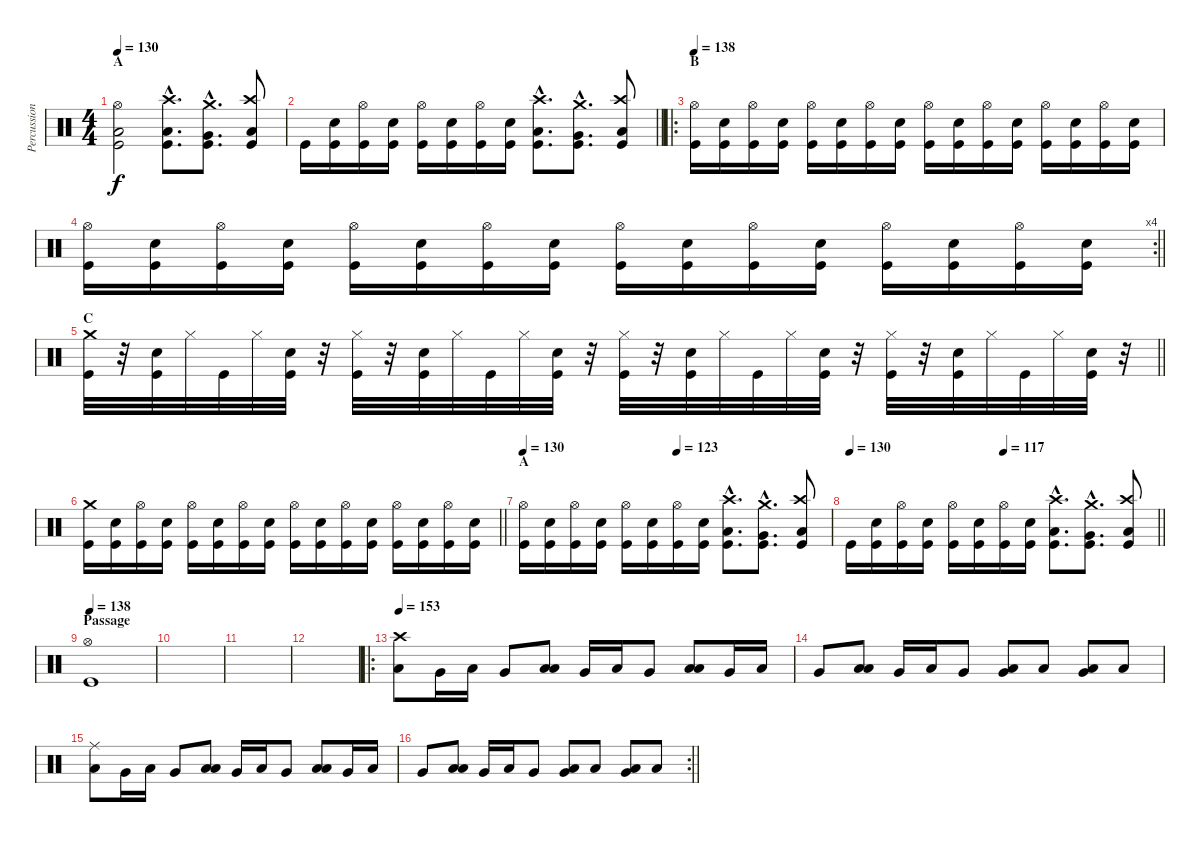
\track ("Percussion" "Percussion") {instrument percussion}
\staff {score}
\articulation defaults
\ts (4 4)
\section ("" "A")
\tempo 130
\clef neutral
\ks c
("Kick (hit)" "Low Tom (hit)" "Hi-Hat (open)").2{dy f} ("Kick (hit)"{hac} "Crash high (hit)"{hac} "Low Tom (hit)"{hac}).8{d} ("Kick (hit)"{hac} "Crash medium (hit)"{hac} "Very Low Tom (hit)"{hac}).8{d} ("Kick (hit)" "Crash high (hit)" "Low Floor Tom (hit)").8 |
\barLineRight lightlight "Kick (hit)".16
("Kick (hit)" "Snare (hit) 2").16 ("Kick (hit)" "Hi-Hat (open)").16 ("Kick (hit)" "Snare (hit) 2").16 ("Kick (hit)" "Hi-Hat (open)").16 ("Kick (hit)" "Snare (hit) 2").16 ("Kick (hit)" "Hi-Hat (open)").16 ("Kick (hit)" "Snare (hit) 2").16 ("Kick (hit)"{hac} "Crash high (hit)"{hac} "Low Tom (hit)"{hac}).8{d} ("Kick (hit)"{hac} "Crash medium (hit)"{hac} "Very Low Tom (hit)"{hac}).8{d} ("Kick (hit)" "Crash high (hit)" "Low Floor Tom (hit)").8 |
\ro
\section ("" "B")
\tempo 138
("Kick (hit)" "Hi-Hat (open)").16 ("Kick (hit)" "Snare (hit) 2").16 ("Kick (hit)" "Hi-Hat (open)").16 ("Kick (hit)" "Snare (hit) 2").16 ("Kick (hit)" "Hi-Hat (open)").16 ("Kick (hit)" "Snare (hit) 2").16 ("Kick (hit)" "Hi-Hat (open)").16 ("Kick (hit)" "Snare (hit) 2").16 ("Kick (hit)" "Hi-Hat (open)").16 ("Kick (hit)" "Snare (hit) 2").16 ("Kick (hit)" "Hi-Hat (open)").16 ("Kick (hit)" "Snare (hit) 2").16 ("Kick (hit)" "Hi-Hat (open)").16 ("Kick (hit)" "Snare (hit) 2").16 ("Kick (hit)" "Hi-Hat (open)").16 ("Kick (hit)" "Snare (hit) 2").16 |
\rc 4
\barLineRight lightlight
("Kick (hit)" "Hi-Hat (open)").16 ("Kick (hit)" "Snare (hit) 2").16 ("Kick (hit)" "Hi-Hat (open)").16 ("Kick (hit)" "Snare (hit) 2").16 ("Kick (hit)" "Hi-Hat (open)").16 ("Kick (hit)" "Snare (hit) 2").16 ("Kick (hit)" "Hi-Hat (open)").16 ("Kick (hit)" "Snare (hit) 2").16 ("Kick (hit)" "Hi-Hat (open)").16 ("Kick (hit)" "Snare (hit) 2").16 ("Kick (hit)" "Hi-Hat (open)").16 ("Kick (hit)" "Snare (hit) 2").16 ("Kick (hit)" "Hi-Hat (open)").16 ("Kick (hit)" "Snare (hit) 2").16 ("Kick (hit)" "Hi-Hat (open)").16 ("Kick (hit)" "Snare (hit) 2").16 |
\section ("" "C")
\barLineRight lightlight
("Kick (hit)" "Crash medium (hit)").32 r.32 ("Kick (hit)" "Snare (hit) 2").32 "Hi-Hat (closed)".32 "Kick (hit)".32 "Hi-Hat (closed)".32 ("Kick (hit)" "Snare (hit) 2").32 r.32 ("Kick (hit)" "Hi-Hat (closed)").32 r.32 ("Kick (hit)" "Snare (hit) 2").32 "Hi-Hat (closed)".32 "Kick (hit)".32 "Hi-Hat (closed)".32 ("Kick (hit)" "Snare (hit) 2").32 r.32 ("Kick (hit)" "Hi-Hat (closed)").32 r.32 ("Kick (hit)" "Snare (hit) 2").32 "Hi-Hat (closed)".32 "Kick (hit)".32 "Hi-Hat (closed)".32 ("Kick (hit)" "Snare (hit) 2").32 r.32 ("Kick (hit)" "Hi-Hat (closed)").32 r.32 ("Kick (hit)" "Snare (hit) 2").32 "Hi-Hat (closed)".32 "Kick (hit)".32 "Hi-Hat (closed)".32 ("Kick (hit)" "Snare (hit) 2").32 r.32 |
\barLineRight lightlight
("Kick (hit)" "Crash medium (hit)").16 ("Kick (hit)" "Snare (hit) 2").16 ("Kick (hit)" "Hi-Hat (open)").16 ("Kick (hit)" "Snare (hit) 2").16 ("Kick (hit)" "Hi-Hat (open)").16 ("Kick (hit)" "Snare (hit) 2").16 ("Kick (hit)" "Hi-Hat (open)").16 ("Kick (hit)" "Snare (hit) 2").16 ("Kick (hit)" "Hi-Hat (open)").16 ("Kick (hit)" "Snare (hit) 2").16 ("Kick (hit)" "Hi-Hat (open)").16 ("Kick (hit)" "Snare (hit) 2").16 ("Kick (hit)" "Hi-Hat (open)").16 ("Kick (hit)" "Snare (hit) 2").16 ("Kick (hit)" "Hi-Hat (open)").16 ("Kick (hit)" "Snare (hit) 2").16 |
\section ("" "A")
\tempo 130
\tempo (123 0.5)
("Kick (hit)" "Hi-Hat (open)").16 ("Kick (hit)" "Snare (hit) 2").16 ("Kick (hit)" "Hi-Hat (open)").16 ("Kick (hit)" "Snare (hit) 2").16 ("Kick (hit)" "Hi-Hat (open)").16 ("Kick (hit)" "Snare (hit) 2").16 ("Kick (hit)" "Hi-Hat (open)").16 ("Kick (hit)" "Snare (hit) 2").16 ("Kick (hit)"{hac} "Crash high (hit)"{hac} "Low Tom (hit)"{hac}).8{d} ("Kick (hit)"{hac} "Crash medium (hit)"{hac} "Very Low Tom (hit)"{hac}).8{d} ("Kick (hit)" "Crash high (hit)" "Low Floor Tom (hit)").8 |
\tempo 130
\tempo (117 0.5)
\barLineRight lightlight "Kick (hit)".16
("Kick (hit)" "Snare (hit) 2").16 ("Kick (hit)" "Hi-Hat (open)").16 ("Kick (hit)" "Snare (hit) 2").16 ("Kick (hit)" "Hi-Hat (open)").16 ("Kick (hit)" "Snare (hit) 2").16 ("Kick (hit)" "Hi-Hat (open)").16 ("Kick (hit)" "Snare (hit) 2").16 ("Kick (hit)"{hac} "Crash high (hit)"{hac} "Low Tom (hit)"{hac}).8{d} ("Kick (hit)"{hac} "Crash medium (hit)"{hac} "Very Low Tom (hit)"{hac}).8{d} ("Kick (hit)" "Crash high (hit)" "Low Floor Tom (hit)").8 |
\section ("" "Passage")
\tempo 138
("Kick (hit)" "Hi-Hat (open)").1 |
|
|
|
\ro
\tempo 153
("Crash high (hit)" "Low Tom (hit)").8{volume 9} "Very Low Tom (hit)".16 "Low Floor Tom (hit)".16 "Very Low Tom (hit)".8 ("Low Floor Tom (hit)" "Low Tom (hit)").8 "Very Low Tom (hit)".16 "Low Floor Tom (hit)".16 "Very Low Tom (hit)".8 ("Low Floor Tom (hit)" "Low Tom (hit)").8 "Very Low Tom (hit)".16 "Low Floor Tom (hit)".16 |
"Very Low Tom (hit)".8 ("Low Floor Tom (hit)" "Low Tom (hit)").8 "Very Low Tom (hit)".16 "Low Floor Tom (hit)".16 "Very Low Tom (hit)".8 ("Low Floor Tom (hit)" "Very Low Tom (hit)").8 "Low Floor Tom (hit)".8 ("Low Floor Tom (hit)" "Very Low Tom (hit)").8 "Low Floor Tom (hit)".8 |
("Ride (middle)" "Low Tom (hit)").8 "Very Low Tom (hit)".16 "Low Floor Tom (hit)".16 "Very Low Tom (hit)".8 ("Low Floor Tom (hit)" "Low Tom (hit)").8 "Very Low Tom (hit)".16 "Low Floor Tom (hit)".16 "Very Low Tom (hit)".8 ("Low Floor Tom (hit)" "Low Tom (hit)").8 "Very Low Tom (hit)".16 "Low Floor Tom (hit)".16 |
\rc 2
\barLineRight lightlight "Very Low Tom (hit)".8
("Low Floor Tom (hit)" "Low Tom (hit)").8 "Very Low Tom (hit)".16 "Low Floor Tom (hit)".16 "Very Low Tom (hit)".8 ("Low Floor Tom (hit)" "Very Low Tom (hit)").8 "Low Floor Tom (hit)".8 ("Low Floor Tom (hit)" "Very Low Tom (hit)").8 "Low Floor Tom (hit)".8
